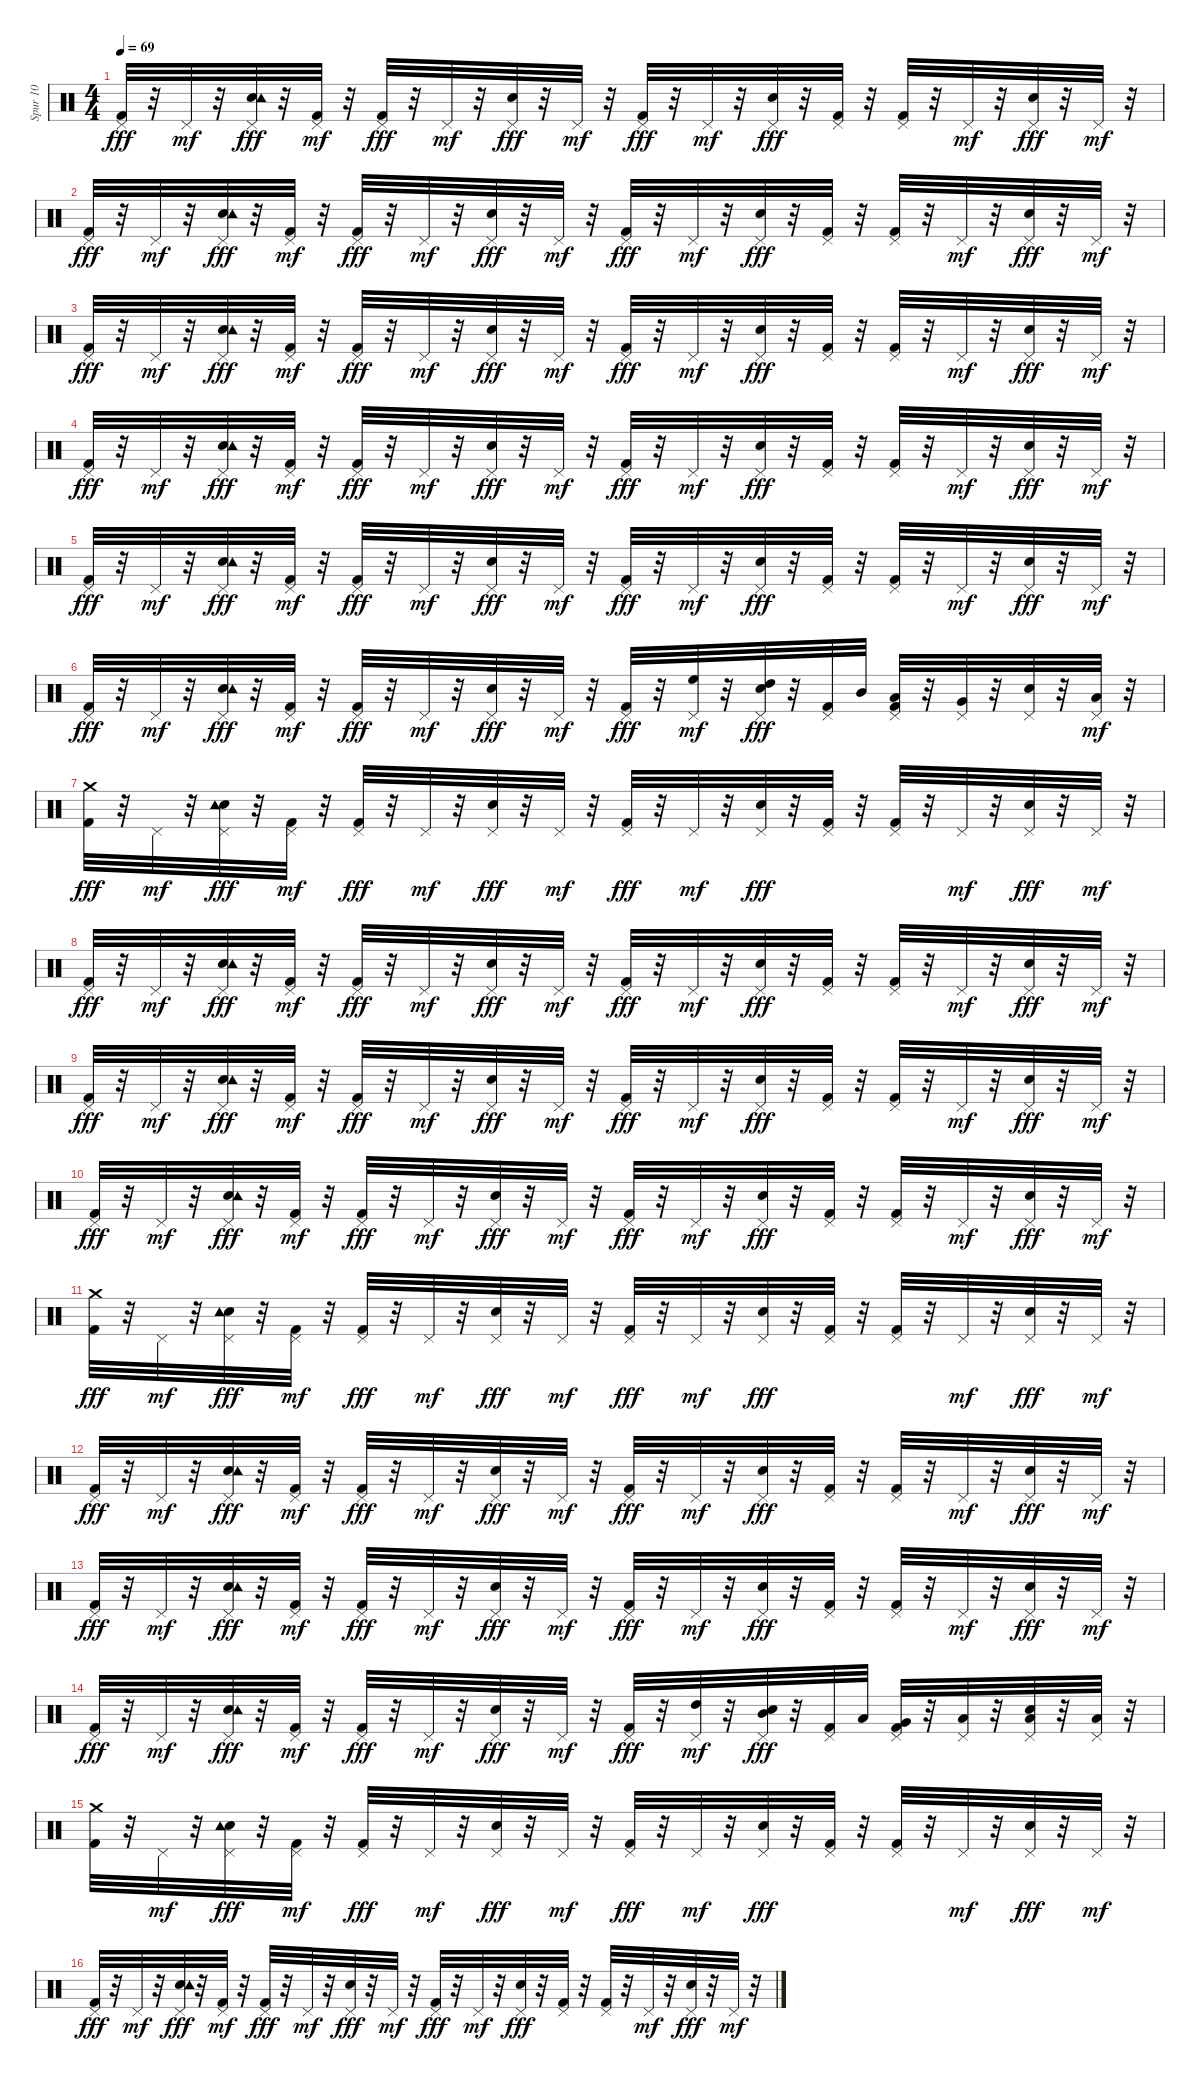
\track ("Spur 10" "Spur 10") {instrument percussion}
\staff {score}
\articulation defaults
\ts (4 4)
\tempo 69
\clef neutral
\ks c
("Kick (hit) 2" "Pedal Hi-Hat (hit)").32{dy fff} r.32 "Pedal Hi-Hat (hit)".32{dy mf} r.32 ("Snare (hit) 2" "Pedal Hi-Hat (hit)" "Tambourine (hit)").32{dy fff} r.32 ("Kick (hit) 2" "Pedal Hi-Hat (hit)").32{dy mf} r.32 ("Kick (hit) 2" "Pedal Hi-Hat (hit)").32{dy fff} r.32 "Pedal Hi-Hat (hit)".32{dy mf} r.32 ("Snare (hit) 2" "Pedal Hi-Hat (hit)").32{dy fff} r.32 "Pedal Hi-Hat (hit)".32{dy mf} r.32 ("Kick (hit) 2" "Pedal Hi-Hat (hit)").32{dy fff} r.32 "Pedal Hi-Hat (hit)".32{dy mf} r.32 ("Snare (hit) 2" "Pedal Hi-Hat (hit)").32{dy fff} r.32 ("Kick (hit) 2" "Pedal Hi-Hat (hit)").32 r.32 ("Kick (hit) 2" "Pedal Hi-Hat (hit)").32 r.32 "Pedal Hi-Hat (hit)".32{dy mf} r.32 ("Snare (hit) 2" "Pedal Hi-Hat (hit)").32{dy fff} r.32 "Pedal Hi-Hat (hit)".32{dy mf} r.32 |
("Kick (hit) 2" "Pedal Hi-Hat (hit)").32{dy fff} r.32 "Pedal Hi-Hat (hit)".32{dy mf} r.32 ("Snare (hit) 2" "Pedal Hi-Hat (hit)" "Tambourine (hit)").32{dy fff} r.32 ("Kick (hit) 2" "Pedal Hi-Hat (hit)").32{dy mf} r.32 ("Kick (hit) 2" "Pedal Hi-Hat (hit)").32{dy fff} r.32 "Pedal Hi-Hat (hit)".32{dy mf} r.32 ("Snare (hit) 2" "Pedal Hi-Hat (hit)").32{dy fff} r.32 "Pedal Hi-Hat (hit)".32{dy mf} r.32 ("Kick (hit) 2" "Pedal Hi-Hat (hit)").32{dy fff} r.32 "Pedal Hi-Hat (hit)".32{dy mf} r.32 ("Snare (hit) 2" "Pedal Hi-Hat (hit)").32{dy fff} r.32 ("Kick (hit) 2" "Pedal Hi-Hat (hit)").32 r.32 ("Kick (hit) 2" "Pedal Hi-Hat (hit)").32 r.32 "Pedal Hi-Hat (hit)".32{dy mf} r.32 ("Snare (hit) 2" "Pedal Hi-Hat (hit)").32{dy fff} r.32 "Pedal Hi-Hat (hit)".32{dy mf} r.32 |
("Kick (hit) 2" "Pedal Hi-Hat (hit)").32{dy fff} r.32 "Pedal Hi-Hat (hit)".32{dy mf} r.32 ("Snare (hit) 2" "Pedal Hi-Hat (hit)" "Tambourine (hit)").32{dy fff} r.32 ("Kick (hit) 2" "Pedal Hi-Hat (hit)").32{dy mf} r.32 ("Kick (hit) 2" "Pedal Hi-Hat (hit)").32{dy fff} r.32 "Pedal Hi-Hat (hit)".32{dy mf} r.32 ("Snare (hit) 2" "Pedal Hi-Hat (hit)").32{dy fff} r.32 "Pedal Hi-Hat (hit)".32{dy mf} r.32 ("Kick (hit) 2" "Pedal Hi-Hat (hit)").32{dy fff} r.32 "Pedal Hi-Hat (hit)".32{dy mf} r.32 ("Snare (hit) 2" "Pedal Hi-Hat (hit)").32{dy fff} r.32 ("Kick (hit) 2" "Pedal Hi-Hat (hit)").32 r.32 ("Kick (hit) 2" "Pedal Hi-Hat (hit)").32 r.32 "Pedal Hi-Hat (hit)".32{dy mf} r.32 ("Snare (hit) 2" "Pedal Hi-Hat (hit)").32{dy fff} r.32 "Pedal Hi-Hat (hit)".32{dy mf} r.32 |
("Kick (hit) 2" "Pedal Hi-Hat (hit)").32{dy fff} r.32 "Pedal Hi-Hat (hit)".32{dy mf} r.32 ("Snare (hit) 2" "Pedal Hi-Hat (hit)" "Tambourine (hit)").32{dy fff} r.32 ("Kick (hit) 2" "Pedal Hi-Hat (hit)").32{dy mf} r.32 ("Kick (hit) 2" "Pedal Hi-Hat (hit)").32{dy fff} r.32 "Pedal Hi-Hat (hit)".32{dy mf} r.32 ("Snare (hit) 2" "Pedal Hi-Hat (hit)").32{dy fff} r.32 "Pedal Hi-Hat (hit)".32{dy mf} r.32 ("Kick (hit) 2" "Pedal Hi-Hat (hit)").32{dy fff} r.32 "Pedal Hi-Hat (hit)".32{dy mf} r.32 ("Snare (hit) 2" "Pedal Hi-Hat (hit)").32{dy fff} r.32 ("Kick (hit) 2" "Pedal Hi-Hat (hit)").32 r.32 ("Kick (hit) 2" "Pedal Hi-Hat (hit)").32 r.32 "Pedal Hi-Hat (hit)".32{dy mf} r.32 ("Snare (hit) 2" "Pedal Hi-Hat (hit)").32{dy fff} r.32 "Pedal Hi-Hat (hit)".32{dy mf} r.32 |
("Kick (hit) 2" "Pedal Hi-Hat (hit)").32{dy fff} r.32 "Pedal Hi-Hat (hit)".32{dy mf} r.32 ("Snare (hit) 2" "Pedal Hi-Hat (hit)" "Tambourine (hit)").32{dy fff} r.32 ("Kick (hit) 2" "Pedal Hi-Hat (hit)").32{dy mf} r.32 ("Kick (hit) 2" "Pedal Hi-Hat (hit)").32{dy fff} r.32 "Pedal Hi-Hat (hit)".32{dy mf} r.32 ("Snare (hit) 2" "Pedal Hi-Hat (hit)").32{dy fff} r.32 "Pedal Hi-Hat (hit)".32{dy mf} r.32 ("Kick (hit) 2" "Pedal Hi-Hat (hit)").32{dy fff} r.32 "Pedal Hi-Hat (hit)".32{dy mf} r.32 ("Snare (hit) 2" "Pedal Hi-Hat (hit)").32{dy fff} r.32 ("Kick (hit) 2" "Pedal Hi-Hat (hit)").32 r.32 ("Kick (hit) 2" "Pedal Hi-Hat (hit)").32 r.32 "Pedal Hi-Hat (hit)".32{dy mf} r.32 ("Snare (hit) 2" "Pedal Hi-Hat (hit)").32{dy fff} r.32 "Pedal Hi-Hat (hit)".32{dy mf} r.32 |
("Kick (hit) 2" "Pedal Hi-Hat (hit)").32{dy fff} r.32 "Pedal Hi-Hat (hit)".32{dy mf} r.32 ("Snare (hit) 2" "Pedal Hi-Hat (hit)" "Tambourine (hit)").32{dy fff} r.32 ("Kick (hit) 2" "Pedal Hi-Hat (hit)").32{dy mf} r.32 ("Kick (hit) 2" "Pedal Hi-Hat (hit)").32{dy fff} r.32 "Pedal Hi-Hat (hit)".32{dy mf} r.32 ("Snare (hit) 2" "Pedal Hi-Hat (hit)").32{dy fff} r.32 "Pedal Hi-Hat (hit)".32{dy mf} r.32 ("Kick (hit) 2" "Pedal Hi-Hat (hit)").32{dy fff} r.32 ("High Floor Tom (hit)" "Pedal Hi-Hat (hit)").32{dy mf} r.32 ("High Tom (hit)" "Snare (hit) 2" "Pedal Hi-Hat (hit)").32{dy fff} r.32 ("Kick (hit) 2" "Pedal Hi-Hat (hit)").32 "Mid Tom (hit)".32 ("Kick (hit) 2" "Pedal Hi-Hat (hit)" "Low Tom (hit)").32 r.32 ("Pedal Hi-Hat (hit)" "Very Low Tom (hit)").32 r.32 ("Snare (hit) 2" "Pedal Hi-Hat (hit)").32 r.32 ("Low Floor Tom (hit)" "Pedal Hi-Hat (hit)").32{dy mf} r.32 |
("Kick (hit) 2" "Crash medium (hit)").32{dy fff} r.32 "Pedal Hi-Hat (hit)".32{dy mf} r.32 ("Snare (hit) 2" "Pedal Hi-Hat (hit)" "Tambourine (hit)").32{dy fff} r.32 ("Kick (hit) 2" "Pedal Hi-Hat (hit)").32{dy mf} r.32 ("Kick (hit) 2" "Pedal Hi-Hat (hit)").32{dy fff} r.32 "Pedal Hi-Hat (hit)".32{dy mf} r.32 ("Snare (hit) 2" "Pedal Hi-Hat (hit)").32{dy fff} r.32 "Pedal Hi-Hat (hit)".32{dy mf} r.32 ("Kick (hit) 2" "Pedal Hi-Hat (hit)").32{dy fff} r.32 "Pedal Hi-Hat (hit)".32{dy mf} r.32 ("Snare (hit) 2" "Pedal Hi-Hat (hit)").32{dy fff} r.32 ("Kick (hit) 2" "Pedal Hi-Hat (hit)").32 r.32 ("Kick (hit) 2" "Pedal Hi-Hat (hit)").32 r.32 "Pedal Hi-Hat (hit)".32{dy mf} r.32 ("Snare (hit) 2" "Pedal Hi-Hat (hit)").32{dy fff} r.32 "Pedal Hi-Hat (hit)".32{dy mf} r.32 |
("Kick (hit) 2" "Pedal Hi-Hat (hit)").32{dy fff} r.32 "Pedal Hi-Hat (hit)".32{dy mf} r.32 ("Snare (hit) 2" "Pedal Hi-Hat (hit)" "Tambourine (hit)").32{dy fff} r.32 ("Kick (hit) 2" "Pedal Hi-Hat (hit)").32{dy mf} r.32 ("Kick (hit) 2" "Pedal Hi-Hat (hit)").32{dy fff} r.32 "Pedal Hi-Hat (hit)".32{dy mf} r.32 ("Snare (hit) 2" "Pedal Hi-Hat (hit)").32{dy fff} r.32 "Pedal Hi-Hat (hit)".32{dy mf} r.32 ("Kick (hit) 2" "Pedal Hi-Hat (hit)").32{dy fff} r.32 "Pedal Hi-Hat (hit)".32{dy mf} r.32 ("Snare (hit) 2" "Pedal Hi-Hat (hit)").32{dy fff} r.32 ("Kick (hit) 2" "Pedal Hi-Hat (hit)").32 r.32 ("Kick (hit) 2" "Pedal Hi-Hat (hit)").32 r.32 "Pedal Hi-Hat (hit)".32{dy mf} r.32 ("Snare (hit) 2" "Pedal Hi-Hat (hit)").32{dy fff} r.32 "Pedal Hi-Hat (hit)".32{dy mf} r.32 |
("Kick (hit) 2" "Pedal Hi-Hat (hit)").32{dy fff} r.32 "Pedal Hi-Hat (hit)".32{dy mf} r.32 ("Snare (hit) 2" "Pedal Hi-Hat (hit)" "Tambourine (hit)").32{dy fff} r.32 ("Kick (hit) 2" "Pedal Hi-Hat (hit)").32{dy mf} r.32 ("Kick (hit) 2" "Pedal Hi-Hat (hit)").32{dy fff} r.32 "Pedal Hi-Hat (hit)".32{dy mf} r.32 ("Snare (hit) 2" "Pedal Hi-Hat (hit)").32{dy fff} r.32 "Pedal Hi-Hat (hit)".32{dy mf} r.32 ("Kick (hit) 2" "Pedal Hi-Hat (hit)").32{dy fff} r.32 "Pedal Hi-Hat (hit)".32{dy mf} r.32 ("Snare (hit) 2" "Pedal Hi-Hat (hit)").32{dy fff} r.32 ("Kick (hit) 2" "Pedal Hi-Hat (hit)").32 r.32 ("Kick (hit) 2" "Pedal Hi-Hat (hit)").32 r.32 "Pedal Hi-Hat (hit)".32{dy mf} r.32 ("Snare (hit) 2" "Pedal Hi-Hat (hit)").32{dy fff} r.32 "Pedal Hi-Hat (hit)".32{dy mf} r.32 |
("Kick (hit) 2" "Pedal Hi-Hat (hit)").32{dy fff} r.32 "Pedal Hi-Hat (hit)".32{dy mf} r.32 ("Snare (hit) 2" "Pedal Hi-Hat (hit)" "Tambourine (hit)").32{dy fff} r.32 ("Kick (hit) 2" "Pedal Hi-Hat (hit)").32{dy mf} r.32 ("Kick (hit) 2" "Pedal Hi-Hat (hit)").32{dy fff} r.32 "Pedal Hi-Hat (hit)".32{dy mf} r.32 ("Snare (hit) 2" "Pedal Hi-Hat (hit)").32{dy fff} r.32 "Pedal Hi-Hat (hit)".32{dy mf} r.32 ("Kick (hit) 2" "Pedal Hi-Hat (hit)").32{dy fff} r.32 "Pedal Hi-Hat (hit)".32{dy mf} r.32 ("Snare (hit) 2" "Pedal Hi-Hat (hit)").32{dy fff} r.32 ("Kick (hit) 2" "Pedal Hi-Hat (hit)").32 r.32 ("Kick (hit) 2" "Pedal Hi-Hat (hit)").32 r.32 "Pedal Hi-Hat (hit)".32{dy mf} r.32 ("Snare (hit) 2" "Pedal Hi-Hat (hit)").32{dy fff} r.32 "Pedal Hi-Hat (hit)".32{dy mf} r.32 |
("Kick (hit) 2" "Crash medium (hit)").32{dy fff} r.32 "Pedal Hi-Hat (hit)".32{dy mf} r.32 ("Snare (hit) 2" "Pedal Hi-Hat (hit)" "Tambourine (hit)").32{dy fff} r.32 ("Kick (hit) 2" "Pedal Hi-Hat (hit)").32{dy mf} r.32 ("Kick (hit) 2" "Pedal Hi-Hat (hit)").32{dy fff} r.32 "Pedal Hi-Hat (hit)".32{dy mf} r.32 ("Snare (hit) 2" "Pedal Hi-Hat (hit)").32{dy fff} r.32 "Pedal Hi-Hat (hit)".32{dy mf} r.32 ("Kick (hit) 2" "Pedal Hi-Hat (hit)").32{dy fff} r.32 "Pedal Hi-Hat (hit)".32{dy mf} r.32 ("Snare (hit) 2" "Pedal Hi-Hat (hit)").32{dy fff} r.32 ("Kick (hit) 2" "Pedal Hi-Hat (hit)").32 r.32 ("Kick (hit) 2" "Pedal Hi-Hat (hit)").32 r.32 "Pedal Hi-Hat (hit)".32{dy mf} r.32 ("Snare (hit) 2" "Pedal Hi-Hat (hit)").32{dy fff} r.32 "Pedal Hi-Hat (hit)".32{dy mf} r.32 |
("Kick (hit) 2" "Pedal Hi-Hat (hit)").32{dy fff} r.32 "Pedal Hi-Hat (hit)".32{dy mf} r.32 ("Snare (hit) 2" "Pedal Hi-Hat (hit)" "Tambourine (hit)").32{dy fff} r.32 ("Kick (hit) 2" "Pedal Hi-Hat (hit)").32{dy mf} r.32 ("Kick (hit) 2" "Pedal Hi-Hat (hit)").32{dy fff} r.32 "Pedal Hi-Hat (hit)".32{dy mf} r.32 ("Snare (hit) 2" "Pedal Hi-Hat (hit)").32{dy fff} r.32 "Pedal Hi-Hat (hit)".32{dy mf} r.32 ("Kick (hit) 2" "Pedal Hi-Hat (hit)").32{dy fff} r.32 "Pedal Hi-Hat (hit)".32{dy mf} r.32 ("Snare (hit) 2" "Pedal Hi-Hat (hit)").32{dy fff} r.32 ("Kick (hit) 2" "Pedal Hi-Hat (hit)").32 r.32 ("Kick (hit) 2" "Pedal Hi-Hat (hit)").32 r.32 "Pedal Hi-Hat (hit)".32{dy mf} r.32 ("Snare (hit) 2" "Pedal Hi-Hat (hit)").32{dy fff} r.32 "Pedal Hi-Hat (hit)".32{dy mf} r.32 |
("Kick (hit) 2" "Pedal Hi-Hat (hit)").32{dy fff} r.32 "Pedal Hi-Hat (hit)".32{dy mf} r.32 ("Snare (hit) 2" "Pedal Hi-Hat (hit)" "Tambourine (hit)").32{dy fff} r.32 ("Kick (hit) 2" "Pedal Hi-Hat (hit)").32{dy mf} r.32 ("Kick (hit) 2" "Pedal Hi-Hat (hit)").32{dy fff} r.32 "Pedal Hi-Hat (hit)".32{dy mf} r.32 ("Snare (hit) 2" "Pedal Hi-Hat (hit)").32{dy fff} r.32 "Pedal Hi-Hat (hit)".32{dy mf} r.32 ("Kick (hit) 2" "Pedal Hi-Hat (hit)").32{dy fff} r.32 "Pedal Hi-Hat (hit)".32{dy mf} r.32 ("Snare (hit) 2" "Pedal Hi-Hat (hit)").32{dy fff} r.32 ("Kick (hit) 2" "Pedal Hi-Hat (hit)").32 r.32 ("Kick (hit) 2" "Pedal Hi-Hat (hit)").32 r.32 "Pedal Hi-Hat (hit)".32{dy mf} r.32 ("Snare (hit) 2" "Pedal Hi-Hat (hit)").32{dy fff} r.32 "Pedal Hi-Hat (hit)".32{dy mf} r.32 |
("Kick (hit) 2" "Pedal Hi-Hat (hit)").32{dy fff} r.32 "Pedal Hi-Hat (hit)".32{dy mf} r.32 ("Snare (hit) 2" "Pedal Hi-Hat (hit)" "Tambourine (hit)").32{dy fff} r.32 ("Kick (hit) 2" "Pedal Hi-Hat (hit)").32{dy mf} r.32 ("Kick (hit) 2" "Pedal Hi-Hat (hit)").32{dy fff} r.32 "Pedal Hi-Hat (hit)".32{dy mf} r.32 ("Snare (hit) 2" "Pedal Hi-Hat (hit)").32{dy fff} r.32 "Pedal Hi-Hat (hit)".32{dy mf} r.32 ("Kick (hit) 2" "Pedal Hi-Hat (hit)").32{dy fff} r.32 ("High Tom (hit)" "Pedal Hi-Hat (hit)").32{dy mf} r.32 ("Mid Tom (hit)" "Snare (hit) 2" "Pedal Hi-Hat (hit)").32{dy fff} r.32 ("Kick (hit) 2" "Pedal Hi-Hat (hit)").32 "Low Tom (hit)".32 ("Kick (hit) 2" "Pedal Hi-Hat (hit)" "Very Low Tom (hit)").32 r.32 ("Pedal Hi-Hat (hit)" "Low Floor Tom (hit)").32 r.32 ("Snare (hit) 2" "Pedal Hi-Hat (hit)" "Low Floor Tom (hit)").32 r.32 ("Pedal Hi-Hat (hit)" "Low Floor Tom (hit)").32 r.32 |
("Kick (hit) 2" "Crash medium (hit)").32 r.32 "Pedal Hi-Hat (hit)".32{dy mf} r.32 ("Snare (hit) 2" "Pedal Hi-Hat (hit)" "Tambourine (hit)").32{dy fff} r.32 ("Kick (hit) 2" "Pedal Hi-Hat (hit)").32{dy mf} r.32 ("Kick (hit) 2" "Pedal Hi-Hat (hit)").32{dy fff} r.32 "Pedal Hi-Hat (hit)".32{dy mf} r.32 ("Snare (hit) 2" "Pedal Hi-Hat (hit)").32{dy fff} r.32 "Pedal Hi-Hat (hit)".32{dy mf} r.32 ("Kick (hit) 2" "Pedal Hi-Hat (hit)").32{dy fff} r.32 "Pedal Hi-Hat (hit)".32{dy mf} r.32 ("Snare (hit) 2" "Pedal Hi-Hat (hit)").32{dy fff} r.32 ("Kick (hit) 2" "Pedal Hi-Hat (hit)").32 r.32 ("Kick (hit) 2" "Pedal Hi-Hat (hit)").32 r.32 "Pedal Hi-Hat (hit)".32{dy mf} r.32 ("Snare (hit) 2" "Pedal Hi-Hat (hit)").32{dy fff} r.32 "Pedal Hi-Hat (hit)".32{dy mf} r.32 |
("Kick (hit) 2" "Pedal Hi-Hat (hit)").32{dy fff} r.32 "Pedal Hi-Hat (hit)".32{dy mf} r.32 ("Snare (hit) 2" "Pedal Hi-Hat (hit)" "Tambourine (hit)").32{dy fff} r.32 ("Kick (hit) 2" "Pedal Hi-Hat (hit)").32{dy mf} r.32 ("Kick (hit) 2" "Pedal Hi-Hat (hit)").32{dy fff} r.32 "Pedal Hi-Hat (hit)".32{dy mf} r.32 ("Snare (hit) 2" "Pedal Hi-Hat (hit)").32{dy fff} r.32 "Pedal Hi-Hat (hit)".32{dy mf} r.32 ("Kick (hit) 2" "Pedal Hi-Hat (hit)").32{dy fff} r.32 "Pedal Hi-Hat (hit)".32{dy mf} r.32 ("Snare (hit) 2" "Pedal Hi-Hat (hit)").32{dy fff} r.32 ("Kick (hit) 2" "Pedal Hi-Hat (hit)").32 r.32 ("Kick (hit) 2" "Pedal Hi-Hat (hit)").32 r.32 "Pedal Hi-Hat (hit)".32{dy mf} r.32 ("Snare (hit) 2" "Pedal Hi-Hat (hit)").32{dy fff} r.32 "Pedal Hi-Hat (hit)".32{dy mf} r.32
